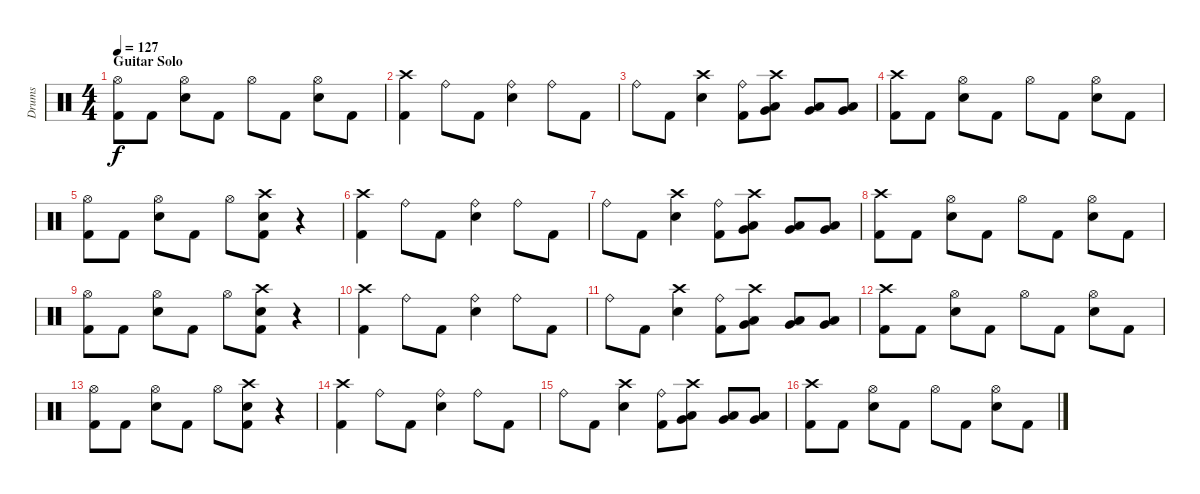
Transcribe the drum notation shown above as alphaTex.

\track ("Drums" "Drums") {instrument percussion}
\staff {score}
\articulation defaults
\ts (4 4)
\section ("" "Guitar Solo")
\tempo 127
\clef neutral
\ks c
("Hi-Hat (open)" "Kick (hit) 2").8{dy f} "Kick (hit) 2".8 ("Hi-Hat (open)" "Electric Snare (hit)").8 "Kick (hit) 2".8 "Hi-Hat (open)".8 "Kick (hit) 2".8 ("Hi-Hat (open)" "Electric Snare (hit)").8 "Kick (hit) 2".8 |
("Crash high (hit)" "Kick (hit) 2").4 "Ride (bell)".8 "Kick (hit) 2".8 ("Ride (bell)" "Electric Snare (hit)").4 "Ride (bell)".8 "Kick (hit) 2".8 |
"Ride (bell)".8 "Kick (hit) 2".8 ("Crash high (hit)" "Electric Snare (hit)").4 ("Ride (bell)" "Kick (hit) 2").8 ("Crash high (hit)" "Low Tom (hit)" "Very Low Tom (hit)").8 ("Low Tom (hit)" "Very Low Tom (hit)").8 ("Low Tom (hit)" "Very Low Tom (hit)").8 |
("Crash high (hit)" "Kick (hit) 2").8 "Kick (hit) 2".8 ("Hi-Hat (open)" "Electric Snare (hit)").8 "Kick (hit) 2".8 "Hi-Hat (open)".8 "Kick (hit) 2".8 ("Hi-Hat (open)" "Electric Snare (hit)").8 "Kick (hit) 2".8 |
("Hi-Hat (open)" "Kick (hit) 2").8 "Kick (hit) 2".8 ("Hi-Hat (open)" "Electric Snare (hit)").8 "Kick (hit) 2".8 "Hi-Hat (open)".8 ("Crash high (hit)" "Electric Snare (hit)" "Kick (hit) 2").8 r.4 |
("Crash high (hit)" "Kick (hit) 2").4 "Ride (bell)".8 "Kick (hit) 2".8 ("Ride (bell)" "Electric Snare (hit)").4 "Ride (bell)".8 "Kick (hit) 2".8 |
"Ride (bell)".8 "Kick (hit) 2".8 ("Crash high (hit)" "Electric Snare (hit)").4 ("Ride (bell)" "Kick (hit) 2").8 ("Crash high (hit)" "Low Tom (hit)" "Very Low Tom (hit)").8 ("Low Tom (hit)" "Very Low Tom (hit)").8 ("Low Tom (hit)" "Very Low Tom (hit)").8 |
("Crash high (hit)" "Kick (hit) 2").8 "Kick (hit) 2".8 ("Hi-Hat (open)" "Electric Snare (hit)").8 "Kick (hit) 2".8 "Hi-Hat (open)".8 "Kick (hit) 2".8 ("Hi-Hat (open)" "Electric Snare (hit)").8 "Kick (hit) 2".8 |
("Hi-Hat (open)" "Kick (hit) 2").8 "Kick (hit) 2".8 ("Hi-Hat (open)" "Electric Snare (hit)").8 "Kick (hit) 2".8 "Hi-Hat (open)".8 ("Crash high (hit)" "Electric Snare (hit)" "Kick (hit) 2").8 r.4 |
("Crash high (hit)" "Kick (hit) 2").4 "Ride (bell)".8 "Kick (hit) 2".8 ("Ride (bell)" "Electric Snare (hit)").4 "Ride (bell)".8 "Kick (hit) 2".8 |
"Ride (bell)".8 "Kick (hit) 2".8 ("Crash high (hit)" "Electric Snare (hit)").4 ("Ride (bell)" "Kick (hit) 2").8 ("Crash high (hit)" "Low Tom (hit)" "Very Low Tom (hit)").8 ("Low Tom (hit)" "Very Low Tom (hit)").8 ("Low Tom (hit)" "Very Low Tom (hit)").8 |
("Crash high (hit)" "Kick (hit) 2").8 "Kick (hit) 2".8 ("Hi-Hat (open)" "Electric Snare (hit)").8 "Kick (hit) 2".8 "Hi-Hat (open)".8 "Kick (hit) 2".8 ("Hi-Hat (open)" "Electric Snare (hit)").8 "Kick (hit) 2".8 |
("Hi-Hat (open)" "Kick (hit) 2").8 "Kick (hit) 2".8 ("Hi-Hat (open)" "Electric Snare (hit)").8 "Kick (hit) 2".8 "Hi-Hat (open)".8 ("Crash high (hit)" "Electric Snare (hit)" "Kick (hit) 2").8 r.4 |
("Crash high (hit)" "Kick (hit) 2").4 "Ride (bell)".8 "Kick (hit) 2".8 ("Ride (bell)" "Electric Snare (hit)").4 "Ride (bell)".8 "Kick (hit) 2".8 |
"Ride (bell)".8 "Kick (hit) 2".8 ("Crash high (hit)" "Electric Snare (hit)").4 ("Ride (bell)" "Kick (hit) 2").8 ("Crash high (hit)" "Low Tom (hit)" "Very Low Tom (hit)").8 ("Low Tom (hit)" "Very Low Tom (hit)").8 ("Low Tom (hit)" "Very Low Tom (hit)").8 |
("Crash high (hit)" "Kick (hit) 2").8 "Kick (hit) 2".8 ("Hi-Hat (open)" "Electric Snare (hit)").8 "Kick (hit) 2".8 "Hi-Hat (open)".8 "Kick (hit) 2".8 ("Hi-Hat (open)" "Electric Snare (hit)").8 "Kick (hit) 2".8
